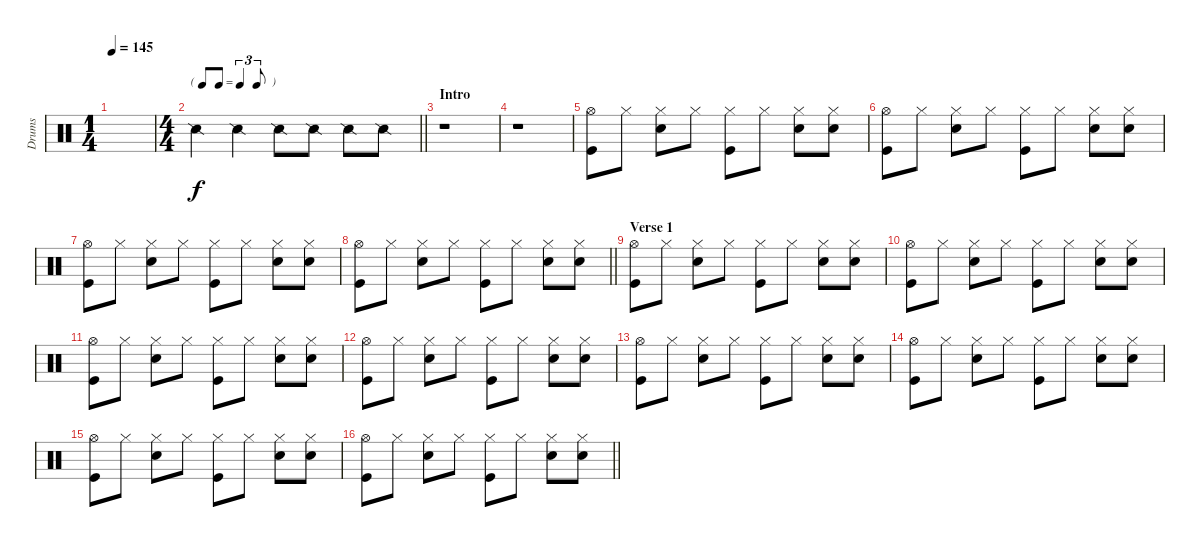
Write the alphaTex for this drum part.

\track ("Drums" "Drums") {instrument percussion}
\staff {score}
\articulation defaults
\ts (1 4)
\tempo 145
\clef neutral
\ks c
|
\ts (4 4)
\tf triplet8th
\barLineRight lightlight "Snare (side stick) 2".4 "Snare (side stick) 2".4 "Snare (side stick) 2".8 "Snare (side stick) 2".8 "Snare (side stick) 2".8 "Snare (side stick) 2".8
|
\section ("" "Intro")
r.1 |
r.1 |
("Kick (hit)" "Hi-Hat (open)").8 "Hi-Hat (closed)".8 ("Snare (hit) 2" "Hi-Hat (closed)").8 "Hi-Hat (closed)".8 ("Kick (hit)" "Hi-Hat (closed)").8 "Hi-Hat (closed)".8 ("Snare (hit) 2" "Hi-Hat (closed)").8 ("Snare (hit) 2" "Hi-Hat (closed)").8 |
("Kick (hit)" "Hi-Hat (open)").8 "Hi-Hat (closed)".8 ("Snare (hit) 2" "Hi-Hat (closed)").8 "Hi-Hat (closed)".8 ("Kick (hit)" "Hi-Hat (closed)").8 "Hi-Hat (closed)".8 ("Snare (hit) 2" "Hi-Hat (closed)").8 ("Snare (hit) 2" "Hi-Hat (closed)").8 |
("Kick (hit)" "Hi-Hat (open)").8 "Hi-Hat (closed)".8 ("Snare (hit) 2" "Hi-Hat (closed)").8 "Hi-Hat (closed)".8 ("Kick (hit)" "Hi-Hat (closed)").8 "Hi-Hat (closed)".8 ("Snare (hit) 2" "Hi-Hat (closed)").8 ("Snare (hit) 2" "Hi-Hat (closed)").8 |
\barLineRight lightlight
("Kick (hit)" "Hi-Hat (open)").8 "Hi-Hat (closed)".8 ("Snare (hit) 2" "Hi-Hat (closed)").8 "Hi-Hat (closed)".8 ("Kick (hit)" "Hi-Hat (closed)").8 "Hi-Hat (closed)".8 ("Snare (hit) 2" "Hi-Hat (closed)").8 ("Snare (hit) 2" "Hi-Hat (closed)").8 |
\section ("" "Verse 1")
("Kick (hit)" "Hi-Hat (open)").8 "Hi-Hat (closed)".8 ("Snare (hit) 2" "Hi-Hat (closed)").8 "Hi-Hat (closed)".8 ("Kick (hit)" "Hi-Hat (closed)").8 "Hi-Hat (closed)".8 ("Snare (hit) 2" "Hi-Hat (closed)").8 ("Snare (hit) 2" "Hi-Hat (closed)").8 |
("Kick (hit)" "Hi-Hat (open)").8 "Hi-Hat (closed)".8 ("Snare (hit) 2" "Hi-Hat (closed)").8 "Hi-Hat (closed)".8 ("Kick (hit)" "Hi-Hat (closed)").8 "Hi-Hat (closed)".8 ("Snare (hit) 2" "Hi-Hat (closed)").8 ("Snare (hit) 2" "Hi-Hat (closed)").8 |
("Kick (hit)" "Hi-Hat (open)").8 "Hi-Hat (closed)".8 ("Snare (hit) 2" "Hi-Hat (closed)").8 "Hi-Hat (closed)".8 ("Kick (hit)" "Hi-Hat (closed)").8 "Hi-Hat (closed)".8 ("Snare (hit) 2" "Hi-Hat (closed)").8 ("Snare (hit) 2" "Hi-Hat (closed)").8 |
("Kick (hit)" "Hi-Hat (open)").8 "Hi-Hat (closed)".8 ("Snare (hit) 2" "Hi-Hat (closed)").8 "Hi-Hat (closed)".8 ("Kick (hit)" "Hi-Hat (closed)").8 "Hi-Hat (closed)".8 ("Snare (hit) 2" "Hi-Hat (closed)").8 ("Snare (hit) 2" "Hi-Hat (closed)").8 |
("Kick (hit)" "Hi-Hat (open)").8 "Hi-Hat (closed)".8 ("Snare (hit) 2" "Hi-Hat (closed)").8 "Hi-Hat (closed)".8 ("Kick (hit)" "Hi-Hat (closed)").8 "Hi-Hat (closed)".8 ("Snare (hit) 2" "Hi-Hat (closed)").8 ("Snare (hit) 2" "Hi-Hat (closed)").8 |
("Kick (hit)" "Hi-Hat (open)").8 "Hi-Hat (closed)".8 ("Snare (hit) 2" "Hi-Hat (closed)").8 "Hi-Hat (closed)".8 ("Kick (hit)" "Hi-Hat (closed)").8 "Hi-Hat (closed)".8 ("Snare (hit) 2" "Hi-Hat (closed)").8 ("Snare (hit) 2" "Hi-Hat (closed)").8 |
("Kick (hit)" "Hi-Hat (open)").8 "Hi-Hat (closed)".8 ("Snare (hit) 2" "Hi-Hat (closed)").8 "Hi-Hat (closed)".8 ("Kick (hit)" "Hi-Hat (closed)").8 "Hi-Hat (closed)".8 ("Snare (hit) 2" "Hi-Hat (closed)").8 ("Snare (hit) 2" "Hi-Hat (closed)").8 |
\barLineRight lightlight
("Kick (hit)" "Hi-Hat (open)").8 "Hi-Hat (closed)".8 ("Snare (hit) 2" "Hi-Hat (closed)").8 "Hi-Hat (closed)".8 ("Kick (hit)" "Hi-Hat (closed)").8 "Hi-Hat (closed)".8 ("Snare (hit) 2" "Hi-Hat (closed)").8 ("Snare (hit) 2" "Hi-Hat (closed)").8
